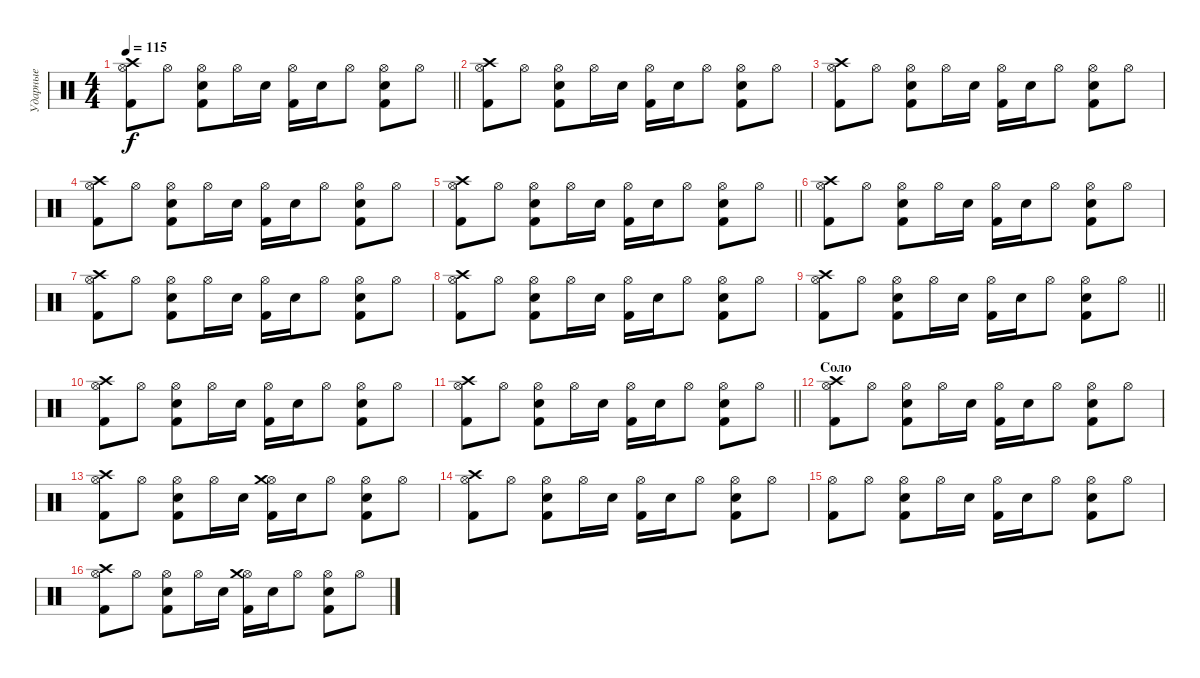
\track ("Ударные" "Ударные") {instrument percussion}
\staff {score}
\articulation defaults
\ts (4 4)
\tempo 115
\clef neutral
\barLineRight lightlight
\ks c
("Hi-Hat (open)" "Crash high (hit)" "Kick (hit) 2").8{dy f} "Hi-Hat (open)".8 ("Hi-Hat (open)" "Electric Snare (hit)" "Kick (hit) 2").8 "Hi-Hat (open)".16 "Electric Snare (hit)".16 ("Hi-Hat (open)" "Kick (hit) 2").16 "Electric Snare (hit)".16 "Hi-Hat (open)".8 ("Hi-Hat (open)" "Electric Snare (hit)" "Kick (hit) 2").8 "Hi-Hat (open)".8 |
("Hi-Hat (open)" "Crash high (hit)" "Kick (hit) 2").8 "Hi-Hat (open)".8 ("Hi-Hat (open)" "Electric Snare (hit)" "Kick (hit) 2").8 "Hi-Hat (open)".16 "Electric Snare (hit)".16 ("Hi-Hat (open)" "Kick (hit) 2").16 "Electric Snare (hit)".16 "Hi-Hat (open)".8 ("Hi-Hat (open)" "Electric Snare (hit)" "Kick (hit) 2").8 "Hi-Hat (open)".8 |
("Hi-Hat (open)" "Crash high (hit)" "Kick (hit) 2").8 "Hi-Hat (open)".8 ("Hi-Hat (open)" "Electric Snare (hit)" "Kick (hit) 2").8 "Hi-Hat (open)".16 "Electric Snare (hit)".16 ("Hi-Hat (open)" "Kick (hit) 2").16 "Electric Snare (hit)".16 "Hi-Hat (open)".8 ("Hi-Hat (open)" "Electric Snare (hit)" "Kick (hit) 2").8 "Hi-Hat (open)".8 |
("Hi-Hat (open)" "Crash high (hit)" "Kick (hit) 2").8 "Hi-Hat (open)".8 ("Hi-Hat (open)" "Electric Snare (hit)" "Kick (hit) 2").8 "Hi-Hat (open)".16 "Electric Snare (hit)".16 ("Hi-Hat (open)" "Kick (hit) 2").16 "Electric Snare (hit)".16 "Hi-Hat (open)".8 ("Hi-Hat (open)" "Electric Snare (hit)" "Kick (hit) 2").8 "Hi-Hat (open)".8 |
\barLineRight lightlight
("Hi-Hat (open)" "Crash high (hit)" "Kick (hit) 2").8 "Hi-Hat (open)".8 ("Hi-Hat (open)" "Electric Snare (hit)" "Kick (hit) 2").8 "Hi-Hat (open)".16 "Electric Snare (hit)".16 ("Hi-Hat (open)" "Kick (hit) 2").16 "Electric Snare (hit)".16 "Hi-Hat (open)".8 ("Hi-Hat (open)" "Electric Snare (hit)" "Kick (hit) 2").8 "Hi-Hat (open)".8 |
("Hi-Hat (open)" "Crash high (hit)" "Kick (hit) 2").8 "Hi-Hat (open)".8 ("Hi-Hat (open)" "Electric Snare (hit)" "Kick (hit) 2").8 "Hi-Hat (open)".16 "Electric Snare (hit)".16 ("Hi-Hat (open)" "Kick (hit) 2").16 "Electric Snare (hit)".16 "Hi-Hat (open)".8 ("Hi-Hat (open)" "Electric Snare (hit)" "Kick (hit) 2").8 "Hi-Hat (open)".8 |
("Hi-Hat (open)" "Crash high (hit)" "Kick (hit) 2").8 "Hi-Hat (open)".8 ("Hi-Hat (open)" "Electric Snare (hit)" "Kick (hit) 2").8 "Hi-Hat (open)".16 "Electric Snare (hit)".16 ("Hi-Hat (open)" "Kick (hit) 2").16 "Electric Snare (hit)".16 "Hi-Hat (open)".8 ("Hi-Hat (open)" "Electric Snare (hit)" "Kick (hit) 2").8 "Hi-Hat (open)".8 |
("Hi-Hat (open)" "Crash high (hit)" "Kick (hit) 2").8 "Hi-Hat (open)".8 ("Hi-Hat (open)" "Electric Snare (hit)" "Kick (hit) 2").8 "Hi-Hat (open)".16 "Electric Snare (hit)".16 ("Hi-Hat (open)" "Kick (hit) 2").16 "Electric Snare (hit)".16 "Hi-Hat (open)".8 ("Hi-Hat (open)" "Electric Snare (hit)" "Kick (hit) 2").8 "Hi-Hat (open)".8 |
\barLineRight lightlight
("Hi-Hat (open)" "Crash high (hit)" "Kick (hit) 2").8 "Hi-Hat (open)".8 ("Hi-Hat (open)" "Electric Snare (hit)" "Kick (hit) 2").8 "Hi-Hat (open)".16 "Electric Snare (hit)".16 ("Hi-Hat (open)" "Kick (hit) 2").16 "Electric Snare (hit)".16 "Hi-Hat (open)".8 ("Hi-Hat (open)" "Electric Snare (hit)" "Kick (hit) 2").8 "Hi-Hat (open)".8 |
("Hi-Hat (open)" "Crash high (hit)" "Kick (hit) 2").8 "Hi-Hat (open)".8 ("Hi-Hat (open)" "Electric Snare (hit)" "Kick (hit) 2").8 "Hi-Hat (open)".16 "Electric Snare (hit)".16 ("Hi-Hat (open)" "Kick (hit) 2").16 "Electric Snare (hit)".16 "Hi-Hat (open)".8 ("Hi-Hat (open)" "Electric Snare (hit)" "Kick (hit) 2").8 "Hi-Hat (open)".8 |
\barLineRight lightlight
("Hi-Hat (open)" "Crash high (hit)" "Kick (hit) 2").8 "Hi-Hat (open)".8 ("Hi-Hat (open)" "Electric Snare (hit)" "Kick (hit) 2").8 "Hi-Hat (open)".16 "Electric Snare (hit)".16 ("Hi-Hat (open)" "Kick (hit) 2").16 "Electric Snare (hit)".16 "Hi-Hat (open)".8 ("Hi-Hat (open)" "Electric Snare (hit)" "Kick (hit) 2").8 "Hi-Hat (open)".8 |
\section ("" "Соло")
("Hi-Hat (open)" "Crash high (hit)" "Kick (hit) 2").8 "Hi-Hat (open)".8 ("Hi-Hat (open)" "Electric Snare (hit)" "Kick (hit) 2").8 "Hi-Hat (open)".16 "Electric Snare (hit)".16 ("Hi-Hat (open)" "Kick (hit) 2").16 "Electric Snare (hit)".16 "Hi-Hat (open)".8 ("Hi-Hat (open)" "Electric Snare (hit)" "Kick (hit) 2").8 "Hi-Hat (open)".8 |
("Hi-Hat (open)" "Crash high (hit)" "Kick (hit) 2").8 "Hi-Hat (open)".8 ("Hi-Hat (open)" "Electric Snare (hit)" "Kick (hit) 2").8 "Hi-Hat (open)".16 "Electric Snare (hit)".16 ("Hi-Hat (open)" "Crash medium (hit)" "Kick (hit) 2").16 "Electric Snare (hit)".16 "Hi-Hat (open)".8 ("Hi-Hat (open)" "Electric Snare (hit)" "Kick (hit) 2").8 "Hi-Hat (open)".8 |
("Hi-Hat (open)" "Crash high (hit)" "Kick (hit) 2").8 "Hi-Hat (open)".8 ("Hi-Hat (open)" "Electric Snare (hit)" "Kick (hit) 2").8 "Hi-Hat (open)".16 "Electric Snare (hit)".16 ("Hi-Hat (open)" "Kick (hit) 2").16 "Electric Snare (hit)".16 "Hi-Hat (open)".8 ("Hi-Hat (open)" "Electric Snare (hit)" "Kick (hit) 2").8 "Hi-Hat (open)".8 |
("Hi-Hat (open)" "Kick (hit) 2").8 "Hi-Hat (open)".8 ("Hi-Hat (open)" "Electric Snare (hit)" "Kick (hit) 2").8 "Hi-Hat (open)".16 "Electric Snare (hit)".16 ("Hi-Hat (open)" "Kick (hit) 2").16 "Electric Snare (hit)".16 "Hi-Hat (open)".8 ("Hi-Hat (open)" "Electric Snare (hit)" "Kick (hit) 2").8 "Hi-Hat (open)".8 |
("Hi-Hat (open)" "Crash high (hit)" "Kick (hit) 2").8 "Hi-Hat (open)".8 ("Hi-Hat (open)" "Electric Snare (hit)" "Kick (hit) 2").8 "Hi-Hat (open)".16 "Electric Snare (hit)".16 ("Hi-Hat (open)" "Crash medium (hit)" "Kick (hit) 2").16 "Electric Snare (hit)".16 "Hi-Hat (open)".8 ("Hi-Hat (open)" "Electric Snare (hit)" "Kick (hit) 2").8 "Hi-Hat (open)".8
